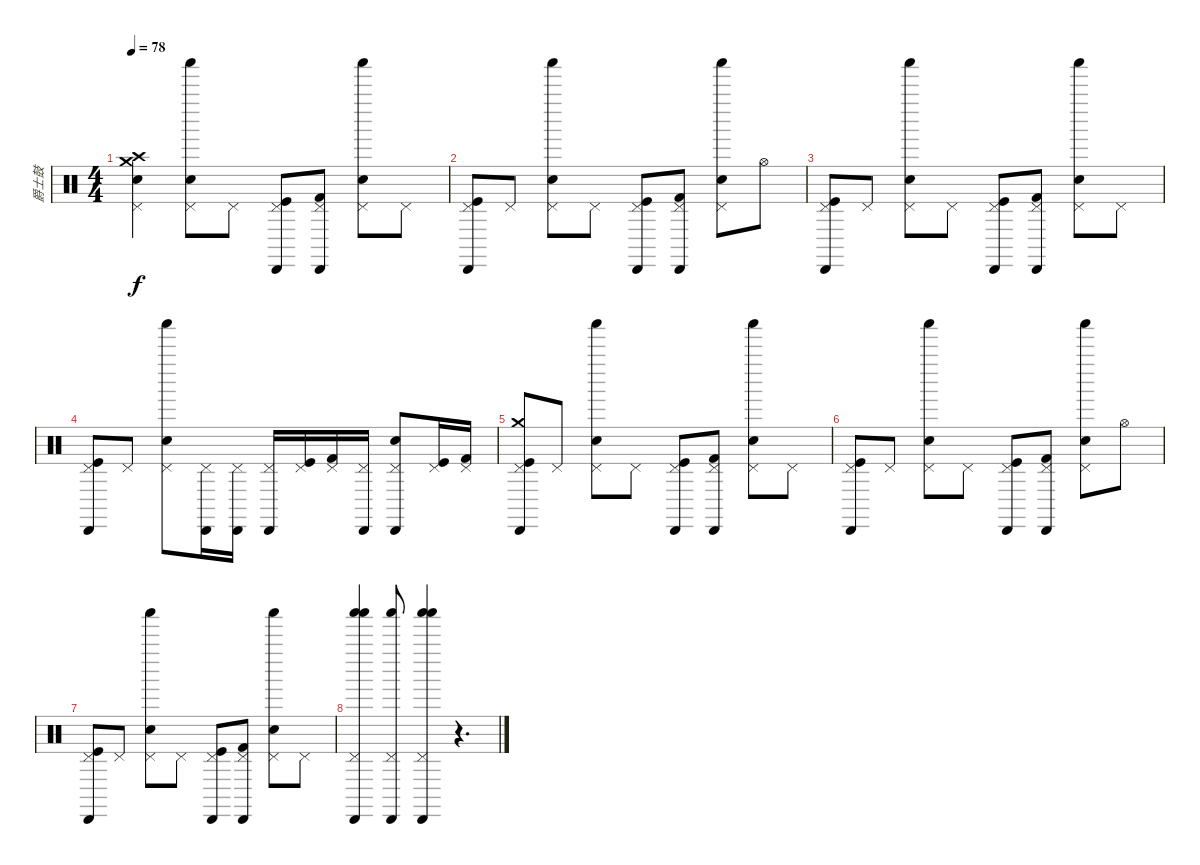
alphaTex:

\track ("爵士鼓" "爵士鼓") {instrument percussion}
\staff {score}
\articulation defaults
\ts (4 4)
\tempo 78
\clef neutral
\ks c
("Pedal Hi-Hat (hit)" "Crash medium (hit)" "Snare (hit) 2" "Crash high (hit)").4{dy f} ("Pedal Hi-Hat (hit)" "Shaker (hit)" "Snare (hit) 2").8 "Pedal Hi-Hat (hit)".8 ("Pedal Hi-Hat (hit)" "Cabasa (hit)" "Kick (hit)").8 ("Pedal Hi-Hat (hit)" "Cabasa (hit)" "Kick (hit) 2").8 ("Pedal Hi-Hat (hit)" "Shaker (hit)" "Snare (hit) 2").8 "Pedal Hi-Hat (hit)".8 |
("Pedal Hi-Hat (hit)" "Cabasa (hit)" "Kick (hit)").8 "Pedal Hi-Hat (hit)".8 ("Pedal Hi-Hat (hit)" "Shaker (hit)" "Snare (hit) 2").8 "Pedal Hi-Hat (hit)".8 ("Pedal Hi-Hat (hit)" "Cabasa (hit)" "Kick (hit)").8 ("Pedal Hi-Hat (hit)" "Cabasa (hit)" "Kick (hit) 2").8 ("Pedal Hi-Hat (hit)" "Shaker (hit)" "Snare (hit) 2").8 "Hi-Hat (open)".8 |
("Pedal Hi-Hat (hit)" "Cabasa (hit)" "Kick (hit)").8 "Pedal Hi-Hat (hit)".8 ("Pedal Hi-Hat (hit)" "Shaker (hit)" "Snare (hit) 2").8 "Pedal Hi-Hat (hit)".8 ("Pedal Hi-Hat (hit)" "Cabasa (hit)" "Kick (hit)").8 ("Pedal Hi-Hat (hit)" "Cabasa (hit)" "Kick (hit) 2").8 ("Pedal Hi-Hat (hit)" "Shaker (hit)" "Snare (hit) 2").8 "Pedal Hi-Hat (hit)".8 |
("Pedal Hi-Hat (hit)" "Cabasa (hit)" "Kick (hit)").8 "Pedal Hi-Hat (hit)".8 ("Pedal Hi-Hat (hit)" "Shaker (hit)" "Snare (hit) 2").8 ("Pedal Hi-Hat (hit)" "Cabasa (hit)").16 ("Pedal Hi-Hat (hit)" "Cabasa (hit)").16 ("Pedal Hi-Hat (hit)" "Cabasa (hit)").16 ("Pedal Hi-Hat (hit)" "Kick (hit)").16 ("Pedal Hi-Hat (hit)" "Kick (hit) 2").16 ("Pedal Hi-Hat (hit)" "Cabasa (hit)").16 ("Pedal Hi-Hat (hit)" "Cabasa (hit)" "Snare (hit) 2").8 ("Pedal Hi-Hat (hit)" "Kick (hit)").16 ("Pedal Hi-Hat (hit)" "Kick (hit) 2").16 |
("Pedal Hi-Hat (hit)" "Cabasa (hit)" "Crash medium (hit)" "Kick (hit)").8 "Pedal Hi-Hat (hit)".8 ("Pedal Hi-Hat (hit)" "Shaker (hit)" "Snare (hit) 2").8 "Pedal Hi-Hat (hit)".8 ("Pedal Hi-Hat (hit)" "Cabasa (hit)" "Kick (hit)").8 ("Pedal Hi-Hat (hit)" "Cabasa (hit)" "Kick (hit) 2").8 ("Pedal Hi-Hat (hit)" "Shaker (hit)" "Snare (hit) 2").8 "Pedal Hi-Hat (hit)".8 |
("Pedal Hi-Hat (hit)" "Cabasa (hit)" "Kick (hit)").8 "Pedal Hi-Hat (hit)".8 ("Pedal Hi-Hat (hit)" "Shaker (hit)" "Snare (hit) 2").8 "Pedal Hi-Hat (hit)".8 ("Pedal Hi-Hat (hit)" "Cabasa (hit)" "Kick (hit)").8 ("Pedal Hi-Hat (hit)" "Cabasa (hit)" "Kick (hit) 2").8 ("Pedal Hi-Hat (hit)" "Shaker (hit)" "Snare (hit) 2").8 "Hi-Hat (open)".8 |
("Pedal Hi-Hat (hit)" "Cabasa (hit)" "Kick (hit)").8 "Pedal Hi-Hat (hit)".8 ("Pedal Hi-Hat (hit)" "Shaker (hit)" "Snare (hit) 2").8 "Pedal Hi-Hat (hit)".8 ("Pedal Hi-Hat (hit)" "Cabasa (hit)" "Kick (hit)").8 ("Pedal Hi-Hat (hit)" "Cabasa (hit)" "Kick (hit) 2").8 ("Pedal Hi-Hat (hit)" "Shaker (hit)" "Snare (hit) 2").8 "Pedal Hi-Hat (hit)".8 |
("Pedal Hi-Hat (hit)" "Shaker (hit)" "Cabasa (hit)" "Shaker (hit)").4 ("Pedal Hi-Hat (hit)" "Cabasa (hit)" "Shaker (hit)").8 ("Pedal Hi-Hat (hit)" "Shaker (hit)" "Cabasa (hit)" "Shaker (hit)").4 r.4{d}
